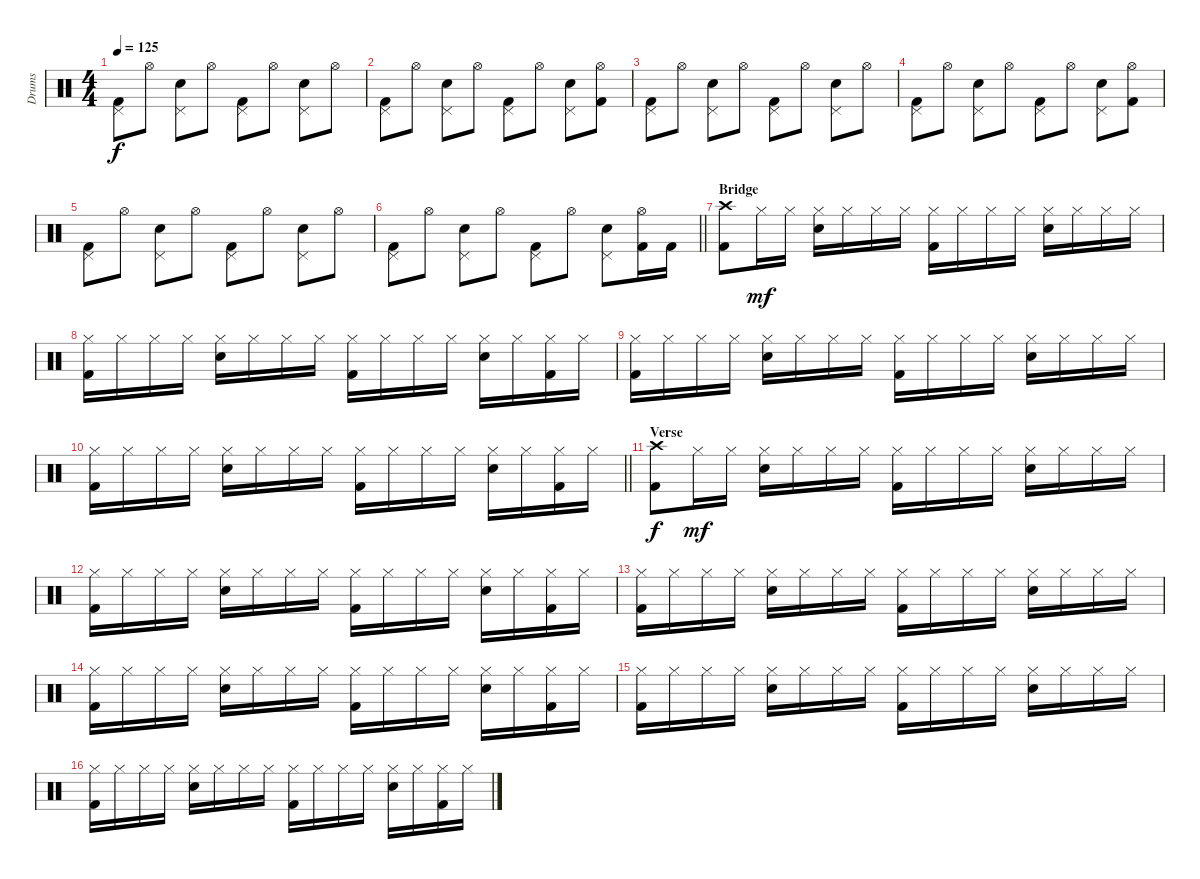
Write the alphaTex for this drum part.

\track ("Drums" "Drums") {instrument percussion}
\staff {score}
\articulation defaults
\ts (4 4)
\tempo 125
\clef neutral
\ks c
("Pedal Hi-Hat (hit)" "Kick (hit) 2").8{dy f} "Hi-Hat (open)".8 ("Pedal Hi-Hat (hit)" "Electric Snare (hit)").8 "Hi-Hat (open)".8 ("Pedal Hi-Hat (hit)" "Kick (hit) 2").8 "Hi-Hat (open)".8 ("Pedal Hi-Hat (hit)" "Electric Snare (hit)").8 "Hi-Hat (open)".8 |
("Pedal Hi-Hat (hit)" "Kick (hit) 2").8 "Hi-Hat (open)".8 ("Pedal Hi-Hat (hit)" "Electric Snare (hit)").8 "Hi-Hat (open)".8 ("Pedal Hi-Hat (hit)" "Kick (hit) 2").8 "Hi-Hat (open)".8 ("Pedal Hi-Hat (hit)" "Electric Snare (hit)").8 ("Hi-Hat (open)" "Kick (hit) 2").8 |
("Pedal Hi-Hat (hit)" "Kick (hit) 2").8 "Hi-Hat (open)".8 ("Pedal Hi-Hat (hit)" "Electric Snare (hit)").8 "Hi-Hat (open)".8 ("Pedal Hi-Hat (hit)" "Kick (hit) 2").8 "Hi-Hat (open)".8 ("Pedal Hi-Hat (hit)" "Electric Snare (hit)").8 "Hi-Hat (open)".8 |
("Pedal Hi-Hat (hit)" "Kick (hit) 2").8 "Hi-Hat (open)".8 ("Pedal Hi-Hat (hit)" "Electric Snare (hit)").8 "Hi-Hat (open)".8 ("Pedal Hi-Hat (hit)" "Kick (hit) 2").8 "Hi-Hat (open)".8 ("Pedal Hi-Hat (hit)" "Electric Snare (hit)").8 ("Hi-Hat (open)" "Kick (hit) 2").8 |
("Pedal Hi-Hat (hit)" "Kick (hit) 2").8 "Hi-Hat (open)".8 ("Pedal Hi-Hat (hit)" "Electric Snare (hit)").8 "Hi-Hat (open)".8 ("Pedal Hi-Hat (hit)" "Kick (hit) 2").8 "Hi-Hat (open)".8 ("Pedal Hi-Hat (hit)" "Electric Snare (hit)").8 "Hi-Hat (open)".8 |
\barLineRight lightlight
("Pedal Hi-Hat (hit)" "Kick (hit) 2").8 "Hi-Hat (open)".8 ("Pedal Hi-Hat (hit)" "Electric Snare (hit)").8 "Hi-Hat (open)".8 ("Pedal Hi-Hat (hit)" "Kick (hit) 2").8 "Hi-Hat (open)".8 ("Pedal Hi-Hat (hit)" "Electric Snare (hit)").8 ("Hi-Hat (open)" "Kick (hit) 2").16 "Kick (hit) 2".16 |
\section ("" "Bridge")
("Crash high (hit)" "Kick (hit) 2").8 "Hi-Hat (closed)".16{dy mf} "Hi-Hat (closed)".16 ("Hi-Hat (closed)" "Electric Snare (hit)").16 "Hi-Hat (closed)".16 "Hi-Hat (closed)".16 "Hi-Hat (closed)".16 ("Hi-Hat (closed)" "Kick (hit) 2").16 "Hi-Hat (closed)".16 "Hi-Hat (closed)".16 "Hi-Hat (closed)".16 ("Hi-Hat (closed)" "Electric Snare (hit)").16 "Hi-Hat (closed)".16 "Hi-Hat (closed)".16 "Hi-Hat (closed)".16 |
("Hi-Hat (closed)" "Kick (hit) 2").16 "Hi-Hat (closed)".16 "Hi-Hat (closed)".16 "Hi-Hat (closed)".16 ("Hi-Hat (closed)" "Electric Snare (hit)").16 "Hi-Hat (closed)".16 "Hi-Hat (closed)".16 "Hi-Hat (closed)".16 ("Hi-Hat (closed)" "Kick (hit) 2").16 "Hi-Hat (closed)".16 "Hi-Hat (closed)".16 "Hi-Hat (closed)".16 ("Hi-Hat (closed)" "Electric Snare (hit)").16 "Hi-Hat (closed)".16 ("Hi-Hat (closed)" "Kick (hit) 2").16 "Hi-Hat (closed)".16 |
("Hi-Hat (closed)" "Kick (hit) 2").16 "Hi-Hat (closed)".16 "Hi-Hat (closed)".16 "Hi-Hat (closed)".16 ("Hi-Hat (closed)" "Electric Snare (hit)").16 "Hi-Hat (closed)".16 "Hi-Hat (closed)".16 "Hi-Hat (closed)".16 ("Hi-Hat (closed)" "Kick (hit) 2").16 "Hi-Hat (closed)".16 "Hi-Hat (closed)".16 "Hi-Hat (closed)".16 ("Hi-Hat (closed)" "Electric Snare (hit)").16 "Hi-Hat (closed)".16 "Hi-Hat (closed)".16 "Hi-Hat (closed)".16 |
\barLineRight lightlight
("Hi-Hat (closed)" "Kick (hit) 2").16 "Hi-Hat (closed)".16 "Hi-Hat (closed)".16 "Hi-Hat (closed)".16 ("Hi-Hat (closed)" "Electric Snare (hit)").16 "Hi-Hat (closed)".16 "Hi-Hat (closed)".16 "Hi-Hat (closed)".16 ("Hi-Hat (closed)" "Kick (hit) 2").16 "Hi-Hat (closed)".16 "Hi-Hat (closed)".16 "Hi-Hat (closed)".16 ("Hi-Hat (closed)" "Electric Snare (hit)").16 "Hi-Hat (closed)".16 ("Hi-Hat (closed)" "Kick (hit) 2").16 "Hi-Hat (closed)".16 |
\section ("" "Verse")
("Crash high (hit)" "Kick (hit) 2").8{dy f} "Hi-Hat (closed)".16{dy mf} "Hi-Hat (closed)".16 ("Hi-Hat (closed)" "Electric Snare (hit)").16 "Hi-Hat (closed)".16 "Hi-Hat (closed)".16 "Hi-Hat (closed)".16 ("Hi-Hat (closed)" "Kick (hit) 2").16 "Hi-Hat (closed)".16 "Hi-Hat (closed)".16 "Hi-Hat (closed)".16 ("Hi-Hat (closed)" "Electric Snare (hit)").16 "Hi-Hat (closed)".16 "Hi-Hat (closed)".16 "Hi-Hat (closed)".16 |
("Hi-Hat (closed)" "Kick (hit) 2").16 "Hi-Hat (closed)".16 "Hi-Hat (closed)".16 "Hi-Hat (closed)".16 ("Hi-Hat (closed)" "Electric Snare (hit)").16 "Hi-Hat (closed)".16 "Hi-Hat (closed)".16 "Hi-Hat (closed)".16 ("Hi-Hat (closed)" "Kick (hit) 2").16 "Hi-Hat (closed)".16 "Hi-Hat (closed)".16 "Hi-Hat (closed)".16 ("Hi-Hat (closed)" "Electric Snare (hit)").16 "Hi-Hat (closed)".16 ("Hi-Hat (closed)" "Kick (hit) 2").16 "Hi-Hat (closed)".16 |
("Hi-Hat (closed)" "Kick (hit) 2").16 "Hi-Hat (closed)".16 "Hi-Hat (closed)".16 "Hi-Hat (closed)".16 ("Hi-Hat (closed)" "Electric Snare (hit)").16 "Hi-Hat (closed)".16 "Hi-Hat (closed)".16 "Hi-Hat (closed)".16 ("Hi-Hat (closed)" "Kick (hit) 2").16 "Hi-Hat (closed)".16 "Hi-Hat (closed)".16 "Hi-Hat (closed)".16 ("Hi-Hat (closed)" "Electric Snare (hit)").16 "Hi-Hat (closed)".16 "Hi-Hat (closed)".16 "Hi-Hat (closed)".16 |
("Hi-Hat (closed)" "Kick (hit) 2").16 "Hi-Hat (closed)".16 "Hi-Hat (closed)".16 "Hi-Hat (closed)".16 ("Hi-Hat (closed)" "Electric Snare (hit)").16 "Hi-Hat (closed)".16 "Hi-Hat (closed)".16 "Hi-Hat (closed)".16 ("Hi-Hat (closed)" "Kick (hit) 2").16 "Hi-Hat (closed)".16 "Hi-Hat (closed)".16 "Hi-Hat (closed)".16 ("Hi-Hat (closed)" "Electric Snare (hit)").16 "Hi-Hat (closed)".16 ("Hi-Hat (closed)" "Kick (hit) 2").16 "Hi-Hat (closed)".16 |
("Hi-Hat (closed)" "Kick (hit) 2").16 "Hi-Hat (closed)".16 "Hi-Hat (closed)".16 "Hi-Hat (closed)".16 ("Hi-Hat (closed)" "Electric Snare (hit)").16 "Hi-Hat (closed)".16 "Hi-Hat (closed)".16 "Hi-Hat (closed)".16 ("Hi-Hat (closed)" "Kick (hit) 2").16 "Hi-Hat (closed)".16 "Hi-Hat (closed)".16 "Hi-Hat (closed)".16 ("Hi-Hat (closed)" "Electric Snare (hit)").16 "Hi-Hat (closed)".16 "Hi-Hat (closed)".16 "Hi-Hat (closed)".16 |
("Hi-Hat (closed)" "Kick (hit) 2").16 "Hi-Hat (closed)".16 "Hi-Hat (closed)".16 "Hi-Hat (closed)".16 ("Hi-Hat (closed)" "Electric Snare (hit)").16 "Hi-Hat (closed)".16 "Hi-Hat (closed)".16 "Hi-Hat (closed)".16 ("Hi-Hat (closed)" "Kick (hit) 2").16 "Hi-Hat (closed)".16 "Hi-Hat (closed)".16 "Hi-Hat (closed)".16 ("Hi-Hat (closed)" "Electric Snare (hit)").16 "Hi-Hat (closed)".16 ("Hi-Hat (closed)" "Kick (hit) 2").16 "Hi-Hat (closed)".16
